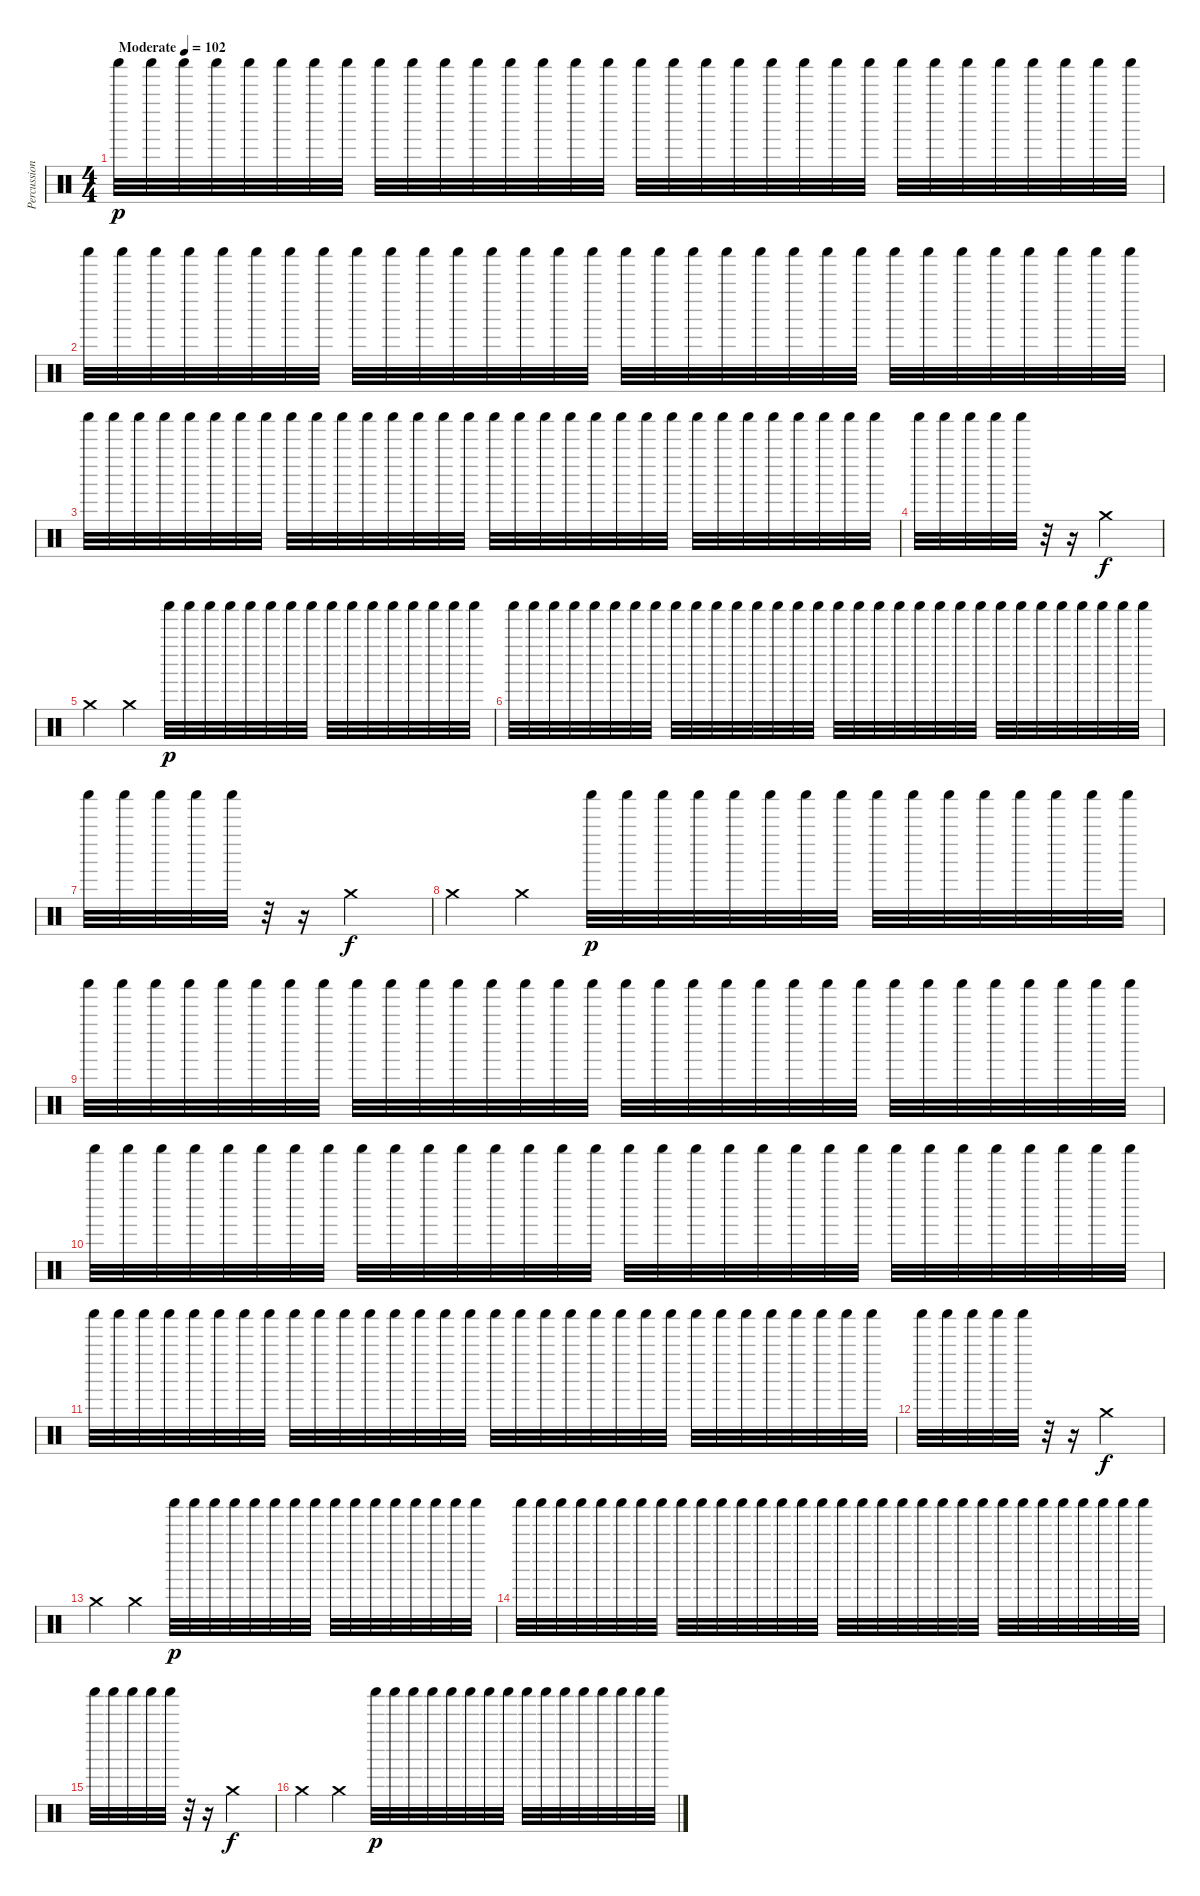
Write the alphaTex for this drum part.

\track ("Percussion" "Percussion") {instrument percussion}
\staff
\articulation defaults
\ts (4 4)
\tempo (102 "Moderate")
\clef neutral
\ks c "Shaker (hit)".32{dy p} "Shaker (hit)".32 "Shaker (hit)".32 "Shaker (hit)".32 "Shaker (hit)".32 "Shaker (hit)".32 "Shaker (hit)".32 "Shaker (hit)".32 "Shaker (hit)".32 "Shaker (hit)".32 "Shaker (hit)".32 "Shaker (hit)".32 "Shaker (hit)".32 "Shaker (hit)".32 "Shaker (hit)".32 "Shaker (hit)".32 "Shaker (hit)".32 "Shaker (hit)".32 "Shaker (hit)".32 "Shaker (hit)".32 "Shaker (hit)".32 "Shaker (hit)".32 "Shaker (hit)".32 "Shaker (hit)".32 "Shaker (hit)".32 "Shaker (hit)".32 "Shaker (hit)".32 "Shaker (hit)".32 "Shaker (hit)".32 "Shaker (hit)".32 "Shaker (hit)".32 "Shaker (hit)".32
|
"Shaker (hit)".32 "Shaker (hit)".32 "Shaker (hit)".32 "Shaker (hit)".32 "Shaker (hit)".32 "Shaker (hit)".32 "Shaker (hit)".32 "Shaker (hit)".32 "Shaker (hit)".32 "Shaker (hit)".32 "Shaker (hit)".32 "Shaker (hit)".32 "Shaker (hit)".32 "Shaker (hit)".32 "Shaker (hit)".32 "Shaker (hit)".32 "Shaker (hit)".32 "Shaker (hit)".32 "Shaker (hit)".32 "Shaker (hit)".32 "Shaker (hit)".32 "Shaker (hit)".32 "Shaker (hit)".32 "Shaker (hit)".32 "Shaker (hit)".32 "Shaker (hit)".32 "Shaker (hit)".32 "Shaker (hit)".32 "Shaker (hit)".32 "Shaker (hit)".32 "Shaker (hit)".32 "Shaker (hit)".32 |
"Shaker (hit)".32 "Shaker (hit)".32 "Shaker (hit)".32 "Shaker (hit)".32 "Shaker (hit)".32 "Shaker (hit)".32 "Shaker (hit)".32 "Shaker (hit)".32 "Shaker (hit)".32 "Shaker (hit)".32 "Shaker (hit)".32 "Shaker (hit)".32 "Shaker (hit)".32 "Shaker (hit)".32 "Shaker (hit)".32 "Shaker (hit)".32 "Shaker (hit)".32 "Shaker (hit)".32 "Shaker (hit)".32 "Shaker (hit)".32 "Shaker (hit)".32 "Shaker (hit)".32 "Shaker (hit)".32 "Shaker (hit)".32 "Shaker (hit)".32 "Shaker (hit)".32 "Shaker (hit)".32 "Shaker (hit)".32 "Shaker (hit)".32 "Shaker (hit)".32 "Shaker (hit)".32 "Shaker (hit)".32 |
"Shaker (hit)".32 "Shaker (hit)".32 "Shaker (hit)".32 "Shaker (hit)".32 "Shaker (hit)".32 r.32 r.16 "Crash medium (hit)".2{dy f} |
"Crash medium (hit)".4 "Crash medium (hit)".4 "Shaker (hit)".32{dy p} "Shaker (hit)".32 "Shaker (hit)".32 "Shaker (hit)".32 "Shaker (hit)".32 "Shaker (hit)".32 "Shaker (hit)".32 "Shaker (hit)".32 "Shaker (hit)".32 "Shaker (hit)".32 "Shaker (hit)".32 "Shaker (hit)".32 "Shaker (hit)".32 "Shaker (hit)".32 "Shaker (hit)".32 "Shaker (hit)".32 |
"Shaker (hit)".32 "Shaker (hit)".32 "Shaker (hit)".32 "Shaker (hit)".32 "Shaker (hit)".32 "Shaker (hit)".32 "Shaker (hit)".32 "Shaker (hit)".32 "Shaker (hit)".32 "Shaker (hit)".32 "Shaker (hit)".32 "Shaker (hit)".32 "Shaker (hit)".32 "Shaker (hit)".32 "Shaker (hit)".32 "Shaker (hit)".32 "Shaker (hit)".32 "Shaker (hit)".32 "Shaker (hit)".32 "Shaker (hit)".32 "Shaker (hit)".32 "Shaker (hit)".32 "Shaker (hit)".32 "Shaker (hit)".32 "Shaker (hit)".32 "Shaker (hit)".32 "Shaker (hit)".32 "Shaker (hit)".32 "Shaker (hit)".32 "Shaker (hit)".32 "Shaker (hit)".32 "Shaker (hit)".32 |
"Shaker (hit)".32 "Shaker (hit)".32 "Shaker (hit)".32 "Shaker (hit)".32 "Shaker (hit)".32 r.32 r.16 "Crash medium (hit)".2{dy f} |
"Crash medium (hit)".4 "Crash medium (hit)".4 "Shaker (hit)".32{dy p} "Shaker (hit)".32 "Shaker (hit)".32 "Shaker (hit)".32 "Shaker (hit)".32 "Shaker (hit)".32 "Shaker (hit)".32 "Shaker (hit)".32 "Shaker (hit)".32 "Shaker (hit)".32 "Shaker (hit)".32 "Shaker (hit)".32 "Shaker (hit)".32 "Shaker (hit)".32 "Shaker (hit)".32 "Shaker (hit)".32 |
"Shaker (hit)".32 "Shaker (hit)".32 "Shaker (hit)".32 "Shaker (hit)".32 "Shaker (hit)".32 "Shaker (hit)".32 "Shaker (hit)".32 "Shaker (hit)".32 "Shaker (hit)".32 "Shaker (hit)".32 "Shaker (hit)".32 "Shaker (hit)".32 "Shaker (hit)".32 "Shaker (hit)".32 "Shaker (hit)".32 "Shaker (hit)".32 "Shaker (hit)".32 "Shaker (hit)".32 "Shaker (hit)".32 "Shaker (hit)".32 "Shaker (hit)".32 "Shaker (hit)".32 "Shaker (hit)".32 "Shaker (hit)".32 "Shaker (hit)".32 "Shaker (hit)".32 "Shaker (hit)".32 "Shaker (hit)".32 "Shaker (hit)".32 "Shaker (hit)".32 "Shaker (hit)".32 "Shaker (hit)".32 |
"Shaker (hit)".32 "Shaker (hit)".32 "Shaker (hit)".32 "Shaker (hit)".32 "Shaker (hit)".32 "Shaker (hit)".32 "Shaker (hit)".32 "Shaker (hit)".32 "Shaker (hit)".32 "Shaker (hit)".32 "Shaker (hit)".32 "Shaker (hit)".32 "Shaker (hit)".32 "Shaker (hit)".32 "Shaker (hit)".32 "Shaker (hit)".32 "Shaker (hit)".32 "Shaker (hit)".32 "Shaker (hit)".32 "Shaker (hit)".32 "Shaker (hit)".32 "Shaker (hit)".32 "Shaker (hit)".32 "Shaker (hit)".32 "Shaker (hit)".32 "Shaker (hit)".32 "Shaker (hit)".32 "Shaker (hit)".32 "Shaker (hit)".32 "Shaker (hit)".32 "Shaker (hit)".32 "Shaker (hit)".32 |
"Shaker (hit)".32 "Shaker (hit)".32 "Shaker (hit)".32 "Shaker (hit)".32 "Shaker (hit)".32 "Shaker (hit)".32 "Shaker (hit)".32 "Shaker (hit)".32 "Shaker (hit)".32 "Shaker (hit)".32 "Shaker (hit)".32 "Shaker (hit)".32 "Shaker (hit)".32 "Shaker (hit)".32 "Shaker (hit)".32 "Shaker (hit)".32 "Shaker (hit)".32 "Shaker (hit)".32 "Shaker (hit)".32 "Shaker (hit)".32 "Shaker (hit)".32 "Shaker (hit)".32 "Shaker (hit)".32 "Shaker (hit)".32 "Shaker (hit)".32 "Shaker (hit)".32 "Shaker (hit)".32 "Shaker (hit)".32 "Shaker (hit)".32 "Shaker (hit)".32 "Shaker (hit)".32 "Shaker (hit)".32 |
"Shaker (hit)".32 "Shaker (hit)".32 "Shaker (hit)".32 "Shaker (hit)".32 "Shaker (hit)".32 r.32 r.16 "Crash medium (hit)".2{dy f} |
"Crash medium (hit)".4 "Crash medium (hit)".4 "Shaker (hit)".32{dy p} "Shaker (hit)".32 "Shaker (hit)".32 "Shaker (hit)".32 "Shaker (hit)".32 "Shaker (hit)".32 "Shaker (hit)".32 "Shaker (hit)".32 "Shaker (hit)".32 "Shaker (hit)".32 "Shaker (hit)".32 "Shaker (hit)".32 "Shaker (hit)".32 "Shaker (hit)".32 "Shaker (hit)".32 "Shaker (hit)".32 |
"Shaker (hit)".32 "Shaker (hit)".32 "Shaker (hit)".32 "Shaker (hit)".32 "Shaker (hit)".32 "Shaker (hit)".32 "Shaker (hit)".32 "Shaker (hit)".32 "Shaker (hit)".32 "Shaker (hit)".32 "Shaker (hit)".32 "Shaker (hit)".32 "Shaker (hit)".32 "Shaker (hit)".32 "Shaker (hit)".32 "Shaker (hit)".32 "Shaker (hit)".32 "Shaker (hit)".32 "Shaker (hit)".32 "Shaker (hit)".32 "Shaker (hit)".32 "Shaker (hit)".32 "Shaker (hit)".32 "Shaker (hit)".32 "Shaker (hit)".32 "Shaker (hit)".32 "Shaker (hit)".32 "Shaker (hit)".32 "Shaker (hit)".32 "Shaker (hit)".32 "Shaker (hit)".32 "Shaker (hit)".32 |
"Shaker (hit)".32 "Shaker (hit)".32 "Shaker (hit)".32 "Shaker (hit)".32 "Shaker (hit)".32 r.32 r.16 "Crash medium (hit)".2{dy f} |
"Crash medium (hit)".4 "Crash medium (hit)".4 "Shaker (hit)".32{dy p} "Shaker (hit)".32 "Shaker (hit)".32 "Shaker (hit)".32 "Shaker (hit)".32 "Shaker (hit)".32 "Shaker (hit)".32 "Shaker (hit)".32 "Shaker (hit)".32 "Shaker (hit)".32 "Shaker (hit)".32 "Shaker (hit)".32 "Shaker (hit)".32 "Shaker (hit)".32 "Shaker (hit)".32 "Shaker (hit)".32
